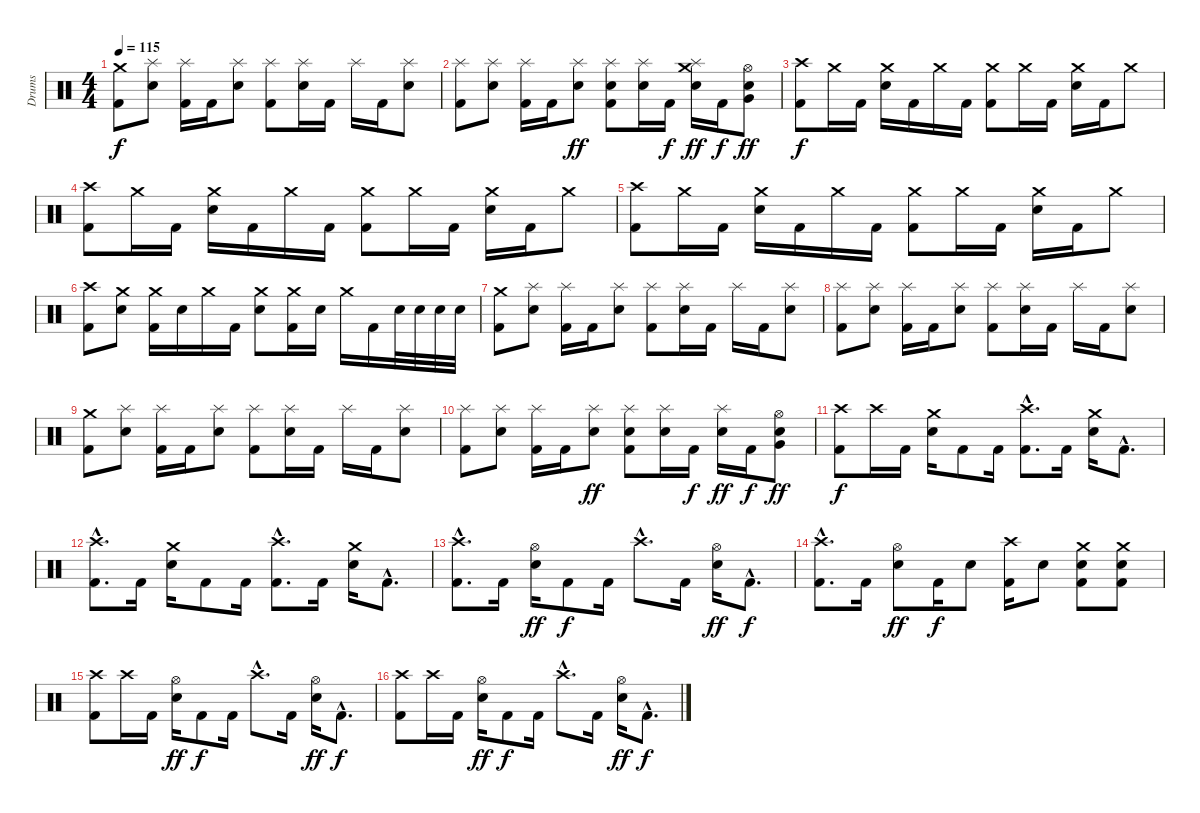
\track ("Drums" "Drums") {instrument percussion}
\staff {score}
\articulation defaults
\ts (4 4)
\tempo 115
\clef neutral
\ks c
("Crash medium (hit)" "Kick (hit) 2").8{dy f} ("Splash (hit)" "Electric Snare (hit)").8 ("Splash (hit)" "Kick (hit) 2").16 "Kick (hit) 2".16 ("Splash (hit)" "Electric Snare (hit)").8 ("Splash (hit)" "Kick (hit) 2").8 ("Splash (hit)" "Electric Snare (hit)").16 "Kick (hit) 2".16 "Splash (hit)".16 "Kick (hit) 2".16 ("Splash (hit)" "Electric Snare (hit)").8 |
("Splash (hit)" "Kick (hit) 2").8 ("Splash (hit)" "Electric Snare (hit)").8 ("Splash (hit)" "Kick (hit) 2").16 "Kick (hit) 2".16 ("Splash (hit)" "Electric Snare (hit)").8{dy ff} ("Splash (hit)" "Electric Snare (hit)" "Kick (hit) 2").8 ("Splash (hit)" "Electric Snare (hit)").16 "Kick (hit) 2".16{dy f} ("Crash medium (hit)" "Splash (hit)" "Electric Snare (hit)").16{dy ff} "Kick (hit) 2".16{dy f} ("Snare (hit) 2" "Hi-Hat (open)" "Very Low Tom (hit)").8{dy ff} |
("Crash high (hit)" "Kick (hit) 2").8{dy f volume 16} "Crash medium (hit)".16 "Kick (hit) 2".16 ("Crash medium (hit)" "Electric Snare (hit)").16 "Kick (hit) 2".16 "Crash medium (hit)".16 "Kick (hit) 2".16 ("Crash medium (hit)" "Kick (hit) 2").8 "Crash medium (hit)".16 "Kick (hit) 2".16 ("Crash medium (hit)" "Electric Snare (hit)").16 "Kick (hit) 2".16 "Crash medium (hit)".8 |
("Crash high (hit)" "Kick (hit) 2").8 "Crash medium (hit)".16 "Kick (hit) 2".16 ("Crash medium (hit)" "Electric Snare (hit)").16 "Kick (hit) 2".16 "Crash medium (hit)".16 "Kick (hit) 2".16 ("Crash medium (hit)" "Kick (hit) 2").8 "Crash medium (hit)".16 "Kick (hit) 2".16 ("Crash medium (hit)" "Electric Snare (hit)").16 "Kick (hit) 2".16 "Crash medium (hit)".8 |
("Crash high (hit)" "Kick (hit) 2").8 "Crash medium (hit)".16 "Kick (hit) 2".16 ("Crash medium (hit)" "Electric Snare (hit)").16 "Kick (hit) 2".16 "Crash medium (hit)".16 "Kick (hit) 2".16 ("Crash medium (hit)" "Kick (hit) 2").8 "Crash medium (hit)".16 "Kick (hit) 2".16 ("Crash medium (hit)" "Electric Snare (hit)").16 "Kick (hit) 2".16 "Crash medium (hit)".8 |
("Crash high (hit)" "Kick (hit) 2").8 ("Crash medium (hit)" "Electric Snare (hit)").8 ("Crash medium (hit)" "Kick (hit) 2").16 "Electric Snare (hit)".16 "Crash medium (hit)".16 "Kick (hit) 2".16 ("Crash medium (hit)" "Electric Snare (hit)").8 ("Crash medium (hit)" "Kick (hit) 2").16 "Electric Snare (hit)".16 "Crash medium (hit)".16 "Kick (hit) 2".16 "Electric Snare (hit)".32 "Electric Snare (hit)".32 "Electric Snare (hit)".32 "Electric Snare (hit)".32 |
("Crash medium (hit)" "Kick (hit) 2").8{volume 13} ("Splash (hit)" "Electric Snare (hit)").8 ("Splash (hit)" "Kick (hit) 2").16 "Kick (hit) 2".16 ("Splash (hit)" "Electric Snare (hit)").8 ("Splash (hit)" "Kick (hit) 2").8 ("Splash (hit)" "Electric Snare (hit)").16 "Kick (hit) 2".16 "Splash (hit)".16 "Kick (hit) 2".16 ("Splash (hit)" "Electric Snare (hit)").8 |
("Splash (hit)" "Kick (hit) 2").8 ("Splash (hit)" "Electric Snare (hit)").8 ("Splash (hit)" "Kick (hit) 2").16 "Kick (hit) 2".16 ("Splash (hit)" "Electric Snare (hit)").8 ("Splash (hit)" "Kick (hit) 2").8 ("Splash (hit)" "Electric Snare (hit)").16 "Kick (hit) 2".16 "Splash (hit)".16 "Kick (hit) 2".16 ("Splash (hit)" "Electric Snare (hit)").8 |
("Crash medium (hit)" "Kick (hit) 2").8 ("Splash (hit)" "Electric Snare (hit)").8 ("Splash (hit)" "Kick (hit) 2").16 "Kick (hit) 2".16 ("Splash (hit)" "Electric Snare (hit)").8 ("Splash (hit)" "Kick (hit) 2").8 ("Splash (hit)" "Electric Snare (hit)").16 "Kick (hit) 2".16 "Splash (hit)".16 "Kick (hit) 2".16 ("Splash (hit)" "Electric Snare (hit)").8 |
("Splash (hit)" "Kick (hit) 2").8 ("Splash (hit)" "Electric Snare (hit)").8 ("Splash (hit)" "Kick (hit) 2").16 "Kick (hit) 2".16 ("Splash (hit)" "Electric Snare (hit)").8{dy ff} ("Splash (hit)" "Electric Snare (hit)" "Kick (hit) 2").8 ("Splash (hit)" "Electric Snare (hit)").16 "Kick (hit) 2".16{dy f} ("Splash (hit)" "Electric Snare (hit)").16{dy ff} "Kick (hit) 2".16{dy f} ("Snare (hit) 2" "Hi-Hat (open)" "Very Low Tom (hit)").8{dy ff} |
("Crash high (hit)" "Kick (hit) 2").8{dy f volume 16} "Crash high (hit)".16 "Kick (hit) 2".16 ("Crash medium (hit)" "Electric Snare (hit)").16 "Kick (hit) 2".8 "Kick (hit) 2".16 ("Crash high (hit)"{hac} "Kick (hit) 2"{hac}).8{d} "Kick (hit) 2".16 ("Crash medium (hit)" "Electric Snare (hit)").16 "Kick (hit) 2"{hac}.8{d} |
("Crash high (hit)"{hac} "Kick (hit) 2"{hac}).8{d} "Kick (hit) 2".16 ("Crash medium (hit)" "Electric Snare (hit)").16 "Kick (hit) 2".8 "Kick (hit) 2".16 ("Crash high (hit)"{hac} "Kick (hit) 2"{hac}).8{d} "Kick (hit) 2".16 ("Crash medium (hit)" "Electric Snare (hit)").16 "Kick (hit) 2"{hac}.8{d} |
("Crash high (hit)"{hac} "Kick (hit) 2"{hac}).8{d} "Kick (hit) 2".16 ("Hi-Hat (open)" "Electric Snare (hit)").16{dy ff} "Kick (hit) 2".8{dy f} "Kick (hit) 2".16 "Crash high (hit)"{hac}.8{d} "Kick (hit) 2".16 ("Hi-Hat (open)" "Electric Snare (hit)").16{dy ff} "Kick (hit) 2"{hac}.8{d dy f} |
("Crash high (hit)"{hac} "Kick (hit) 2"{hac}).8{d} "Kick (hit) 2".16 ("Hi-Hat (open)" "Electric Snare (hit)").8{dy ff} "Kick (hit) 2".16{dy f} "Electric Snare (hit)".8 ("Crash high (hit)" "Kick (hit) 2").16 "Electric Snare (hit)".8 ("Crash medium (hit)" "Electric Snare (hit)" "Kick (hit) 2").8 ("Crash medium (hit)" "Electric Snare (hit)" "Kick (hit) 2").8 |
("Crash high (hit)" "Kick (hit) 2").8 "Crash high (hit)".16 "Kick (hit) 2".16 ("Hi-Hat (open)" "Electric Snare (hit)").16{dy ff} "Kick (hit) 2".8{dy f} "Kick (hit) 2".16 "Crash high (hit)"{hac}.8{d} "Kick (hit) 2".16 ("Hi-Hat (open)" "Electric Snare (hit)").16{dy ff} "Kick (hit) 2"{hac}.8{d dy f} |
("Crash high (hit)" "Kick (hit) 2").8 "Crash high (hit)".16 "Kick (hit) 2".16 ("Hi-Hat (open)" "Electric Snare (hit)").16{dy ff} "Kick (hit) 2".8{dy f} "Kick (hit) 2".16 "Crash high (hit)"{hac}.8{d} "Kick (hit) 2".16 ("Hi-Hat (open)" "Electric Snare (hit)").16{dy ff} "Kick (hit) 2"{hac}.8{d dy f}
